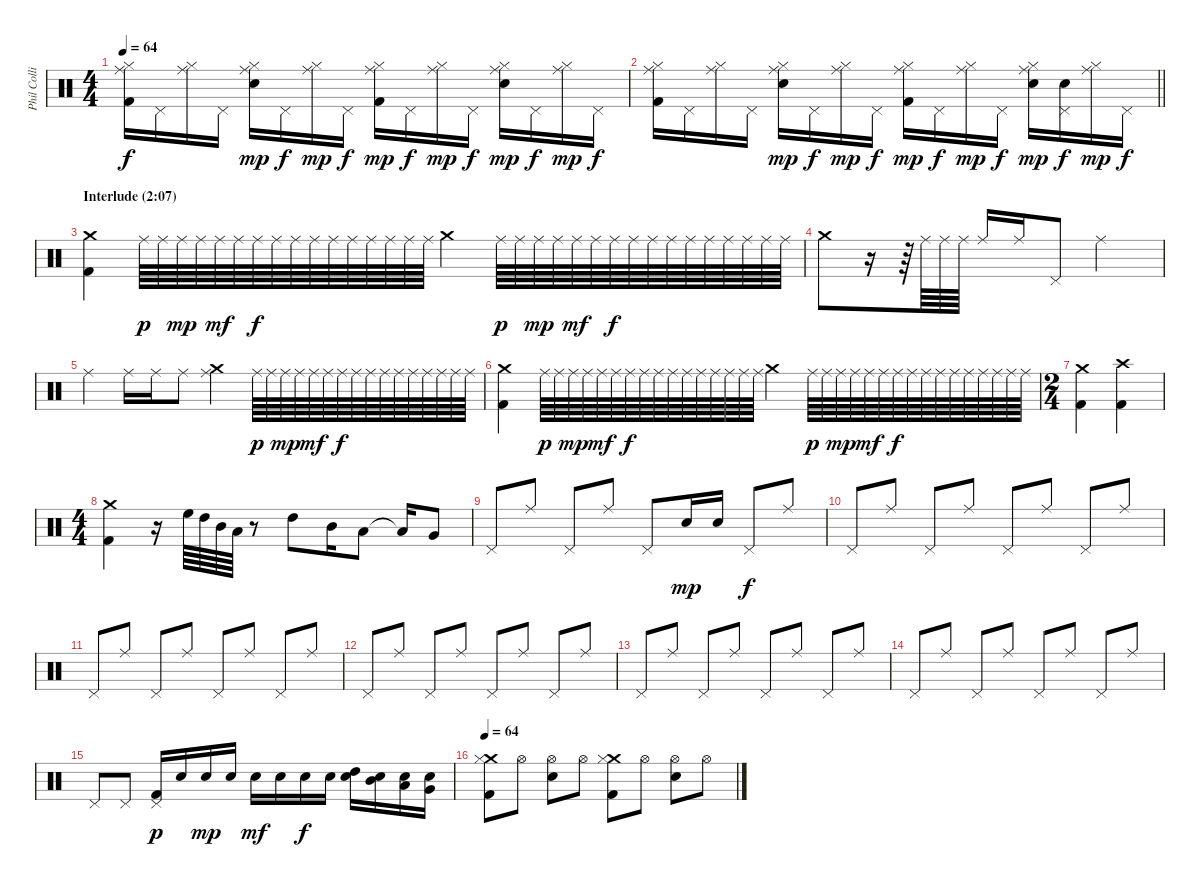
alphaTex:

\track ("Phil Collins (drums)" "Phil Colli") {instrument percussion}
\staff {score}
\articulation defaults
\ts (4 4)
\tempo 64
\clef neutral
\ks c
("Ride (middle)" "Hi-Hat (closed)" "Kick (hit) 2").16{dy f} "Pedal Hi-Hat (hit)".16 ("Ride (middle)" "Hi-Hat (closed)").16 "Pedal Hi-Hat (hit)".16 ("Ride (middle)" "Hi-Hat (closed)" "Electric Snare (hit)").16{dy mp} "Pedal Hi-Hat (hit)".16{dy f} ("Ride (middle)" "Hi-Hat (closed)").16{dy mp} "Pedal Hi-Hat (hit)".16{dy f} ("Ride (middle)" "Hi-Hat (closed)" "Kick (hit) 2").16{dy mp} "Pedal Hi-Hat (hit)".16{dy f} ("Ride (middle)" "Hi-Hat (closed)").16{dy mp} "Pedal Hi-Hat (hit)".16{dy f} ("Ride (middle)" "Hi-Hat (closed)" "Electric Snare (hit)").16{dy mp} "Pedal Hi-Hat (hit)".16{dy f} ("Ride (middle)" "Hi-Hat (closed)").16{dy mp} "Pedal Hi-Hat (hit)".16{dy f} |
\barLineRight lightlight
("Ride (middle)" "Hi-Hat (closed)" "Kick (hit) 2").16 "Pedal Hi-Hat (hit)".16 ("Ride (middle)" "Hi-Hat (closed)").16 "Pedal Hi-Hat (hit)".16 ("Ride (middle)" "Hi-Hat (closed)" "Electric Snare (hit)").16{dy mp} "Pedal Hi-Hat (hit)".16{dy f} ("Ride (middle)" "Hi-Hat (closed)").16{dy mp} "Pedal Hi-Hat (hit)".16{dy f} ("Ride (middle)" "Hi-Hat (closed)" "Kick (hit) 2").16{dy mp} "Pedal Hi-Hat (hit)".16{dy f} ("Ride (middle)" "Hi-Hat (closed)").16{dy mp} "Pedal Hi-Hat (hit)".16{dy f} ("Ride (middle)" "Hi-Hat (closed)" "Electric Snare (hit)").16{dy mp} ("Pedal Hi-Hat (hit)" "Electric Snare (hit)").16{dy f} ("Ride (middle)" "Hi-Hat (closed)").16{dy mp} "Pedal Hi-Hat (hit)".16{dy f} |
\section ("" "Interlude (2:07)")
("Crash medium (hit)" "Kick (hit) 2").4 "Ride (middle)".64{dy p} "Ride (middle)".64 "Ride (middle)".64{dy mp} "Ride (middle)".64 "Ride (middle)".64{dy mf} "Ride (middle)".64 "Ride (middle)".64{dy f} "Ride (middle)".64 "Ride (middle)".64 "Ride (middle)".64 "Ride (middle)".64 "Ride (middle)".64 "Ride (middle)".64 "Ride (middle)".64 "Ride (middle)".64 "Ride (middle)".64 "Crash medium (hit)".4 "Ride (middle)".64{dy p} "Ride (middle)".64 "Ride (middle)".64{dy mp} "Ride (middle)".64 "Ride (middle)".64{dy mf} "Ride (middle)".64 "Ride (middle)".64{dy f} "Ride (middle)".64 "Ride (middle)".64 "Ride (middle)".64 "Ride (middle)".64 "Ride (middle)".64 "Ride (middle)".64 "Ride (middle)".64 "Ride (middle)".64 "Ride (middle)".64 |
"Crash medium (hit)".8 r.16 r.64 "Ride (middle)".64 "Ride (middle)".64 "Ride (middle)".64 "Ride (middle)".16 "Ride (middle)".16 "Pedal Hi-Hat (hit)".8 "Ride (middle)".2 |
"Ride (middle)".4 "Ride (middle)".16 "Ride (middle)".16 "Ride (middle)".8 ("Ride (middle)" "Crash medium (hit)").4 "Ride (middle)".64{dy p} "Ride (middle)".64 "Ride (middle)".64{dy mp} "Ride (middle)".64 "Ride (middle)".64{dy mf} "Ride (middle)".64 "Ride (middle)".64{dy f} "Ride (middle)".64 "Ride (middle)".64 "Ride (middle)".64 "Ride (middle)".64 "Ride (middle)".64 "Ride (middle)".64 "Ride (middle)".64 "Ride (middle)".64 "Ride (middle)".64 |
("Crash medium (hit)" "Kick (hit) 2").4 "Ride (middle)".64{dy p} "Ride (middle)".64 "Ride (middle)".64{dy mp} "Ride (middle)".64 "Ride (middle)".64{dy mf} "Ride (middle)".64 "Ride (middle)".64{dy f} "Ride (middle)".64 "Ride (middle)".64 "Ride (middle)".64 "Ride (middle)".64 "Ride (middle)".64 "Ride (middle)".64 "Ride (middle)".64 "Ride (middle)".64 "Ride (middle)".64 "Crash medium (hit)".4 "Ride (middle)".64{dy p} "Ride (middle)".64 "Ride (middle)".64{dy mp} "Ride (middle)".64 "Ride (middle)".64{dy mf} "Ride (middle)".64 "Ride (middle)".64{dy f} "Ride (middle)".64 "Ride (middle)".64 "Ride (middle)".64 "Ride (middle)".64 "Ride (middle)".64 "Ride (middle)".64 "Ride (middle)".64 "Ride (middle)".64 "Ride (middle)".64 |
\ts (2 4)
("Crash medium (hit)" "Kick (hit) 2").4 ("Crash high (hit)" "Kick (hit) 2").4 |
\ts (4 4)
("Crash medium (hit)" "Kick (hit) 2").4 r.16 "High Floor Tom (hit)".64 "High Tom (hit)".64 "Mid Tom (hit)".64 "Low Tom (hit)".64 r.8 "High Tom (hit)".8 "Mid Tom (hit)".16 "Low Tom (hit)".8 "Low Tom (hit)"{t}.16 "Very Low Tom (hit)".8 |
"Pedal Hi-Hat (hit)".8 "Ride (middle)".8 "Pedal Hi-Hat (hit)".8 "Ride (middle)".8 "Pedal Hi-Hat (hit)".8 "Electric Snare (hit)".16{dy mp} "Electric Snare (hit)".16 "Pedal Hi-Hat (hit)".8{dy f} "Ride (middle)".8 |
"Pedal Hi-Hat (hit)".8 "Ride (middle)".8 "Pedal Hi-Hat (hit)".8 "Ride (middle)".8 "Pedal Hi-Hat (hit)".8 "Ride (middle)".8 "Pedal Hi-Hat (hit)".8 "Ride (middle)".8 |
"Pedal Hi-Hat (hit)".8 "Ride (middle)".8 "Pedal Hi-Hat (hit)".8 "Ride (middle)".8 "Pedal Hi-Hat (hit)".8 "Ride (middle)".8 "Pedal Hi-Hat (hit)".8 "Ride (middle)".8 |
"Pedal Hi-Hat (hit)".8 "Ride (middle)".8 "Pedal Hi-Hat (hit)".8 "Ride (middle)".8 "Pedal Hi-Hat (hit)".8 "Ride (middle)".8 "Pedal Hi-Hat (hit)".8 "Ride (middle)".8 |
"Pedal Hi-Hat (hit)".8 "Ride (middle)".8 "Pedal Hi-Hat (hit)".8 "Ride (middle)".8 "Pedal Hi-Hat (hit)".8 "Ride (middle)".8 "Pedal Hi-Hat (hit)".8 "Ride (middle)".8 |
"Pedal Hi-Hat (hit)".8 "Ride (middle)".8 "Pedal Hi-Hat (hit)".8 "Ride (middle)".8 "Pedal Hi-Hat (hit)".8 "Ride (middle)".8 "Pedal Hi-Hat (hit)".8 "Ride (middle)".8 |
"Pedal Hi-Hat (hit)".8 "Pedal Hi-Hat (hit)".8 ("Pedal Hi-Hat (hit)" "Kick (hit) 2").16{dy p} "Electric Snare (hit)".16 "Electric Snare (hit)".16{dy mp} "Electric Snare (hit)".16 "Electric Snare (hit)".16{dy mf} "Electric Snare (hit)".16 "Electric Snare (hit)".16{dy f} "Electric Snare (hit)".16 ("High Tom (hit)" "Electric Snare (hit)").16 ("Mid Tom (hit)" "Electric Snare (hit)").16 ("Low Tom (hit)" "Electric Snare (hit)").16 ("Very Low Tom (hit)" "Electric Snare (hit)").16 |
\tempo 64
("Crash medium (hit)" "Hi-Hat (closed)" "Kick (hit) 2").8 "Hi-Hat (open)".8 ("Hi-Hat (open)" "Electric Snare (hit)").8 "Hi-Hat (open)".8 ("Crash medium (hit)" "Hi-Hat (closed)" "Kick (hit) 2").8 "Hi-Hat (open)".8 ("Hi-Hat (open)" "Electric Snare (hit)").8 "Hi-Hat (open)".8
